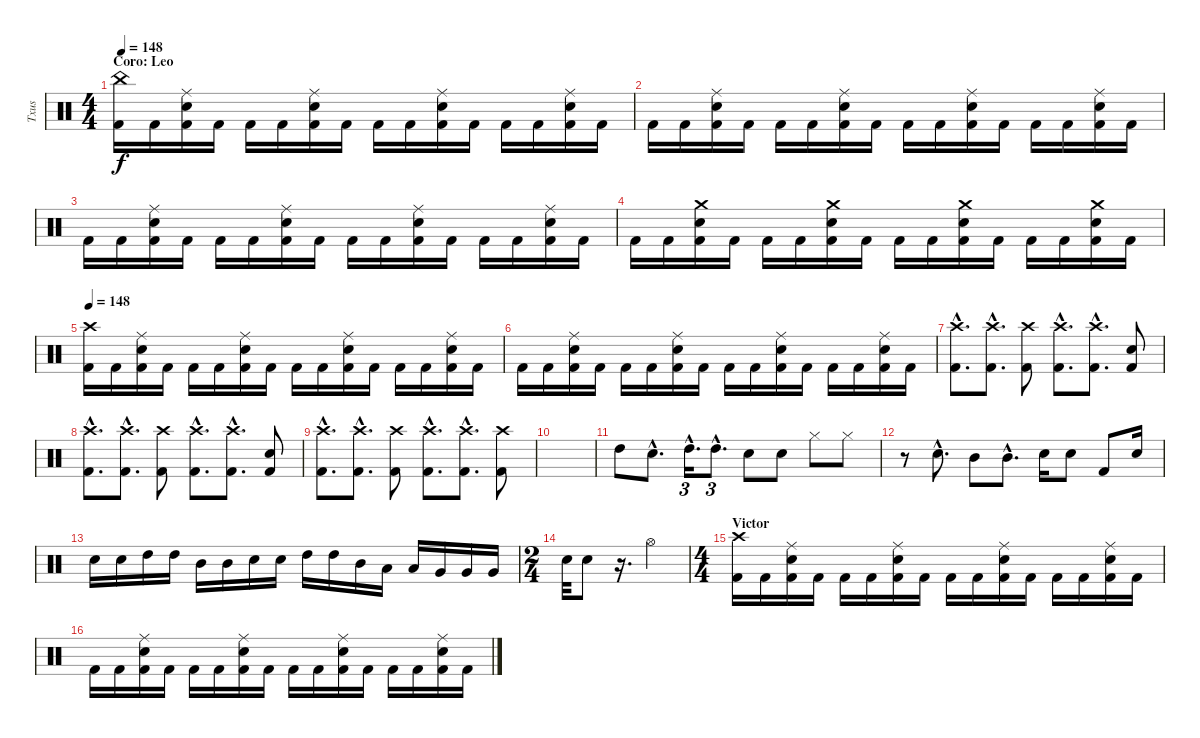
\track ("Txus" "Txus") {instrument percussion}
\staff {score}
\articulation defaults
\ts (4 4)
\section ("" "Coro: Leo")
\tempo 148
\clef neutral
\ks c
("Kick (hit) 2" "China (hit)").16{dy f} "Kick (hit) 2".16 ("Kick (hit) 2" "Electric Snare (hit)" "Ride (middle)").16 "Kick (hit) 2".16 "Kick (hit) 2".16 "Kick (hit) 2".16 ("Kick (hit) 2" "Electric Snare (hit)" "Ride (middle)").16 "Kick (hit) 2".16 "Kick (hit) 2".16 "Kick (hit) 2".16 ("Kick (hit) 2" "Electric Snare (hit)" "Ride (middle)").16 "Kick (hit) 2".16 "Kick (hit) 2".16 "Kick (hit) 2".16 ("Kick (hit) 2" "Electric Snare (hit)" "Ride (middle)").16 "Kick (hit) 2".16 |
"Kick (hit) 2".16 "Kick (hit) 2".16 ("Kick (hit) 2" "Electric Snare (hit)" "Ride (middle)").16 "Kick (hit) 2".16 "Kick (hit) 2".16 "Kick (hit) 2".16 ("Kick (hit) 2" "Electric Snare (hit)" "Ride (middle)").16 "Kick (hit) 2".16 "Kick (hit) 2".16 "Kick (hit) 2".16 ("Kick (hit) 2" "Electric Snare (hit)" "Ride (middle)").16 "Kick (hit) 2".16 "Kick (hit) 2".16 "Kick (hit) 2".16 ("Kick (hit) 2" "Electric Snare (hit)" "Ride (middle)").16 "Kick (hit) 2".16 |
"Kick (hit) 2".16 "Kick (hit) 2".16 ("Kick (hit) 2" "Electric Snare (hit)" "Ride (middle)").16 "Kick (hit) 2".16 "Kick (hit) 2".16 "Kick (hit) 2".16 ("Kick (hit) 2" "Electric Snare (hit)" "Ride (middle)").16 "Kick (hit) 2".16 "Kick (hit) 2".16 "Kick (hit) 2".16 ("Kick (hit) 2" "Electric Snare (hit)" "Ride (middle)").16 "Kick (hit) 2".16 "Kick (hit) 2".16 "Kick (hit) 2".16 ("Kick (hit) 2" "Electric Snare (hit)" "Ride (middle)").16 "Kick (hit) 2".16 |
"Kick (hit) 2".16 "Kick (hit) 2".16 ("Kick (hit) 2" "Electric Snare (hit)" "Crash medium (hit)").16 "Kick (hit) 2".16 "Kick (hit) 2".16 "Kick (hit) 2".16 ("Kick (hit) 2" "Electric Snare (hit)" "Crash medium (hit)").16 "Kick (hit) 2".16 "Kick (hit) 2".16 "Kick (hit) 2".16 ("Kick (hit) 2" "Electric Snare (hit)" "Crash medium (hit)").16 "Kick (hit) 2".16 "Kick (hit) 2".16 "Kick (hit) 2".16 ("Kick (hit) 2" "Electric Snare (hit)" "Crash medium (hit)").16 "Kick (hit) 2".16 |
\tempo 148
("Kick (hit) 2" "Crash high (hit)").16 "Kick (hit) 2".16 ("Kick (hit) 2" "Electric Snare (hit)" "Ride (middle)").16 "Kick (hit) 2".16 "Kick (hit) 2".16 "Kick (hit) 2".16 ("Kick (hit) 2" "Electric Snare (hit)" "Ride (middle)").16 "Kick (hit) 2".16 "Kick (hit) 2".16 "Kick (hit) 2".16 ("Kick (hit) 2" "Electric Snare (hit)" "Ride (middle)").16 "Kick (hit) 2".16 "Kick (hit) 2".16 "Kick (hit) 2".16 ("Kick (hit) 2" "Electric Snare (hit)" "Ride (middle)").16 "Kick (hit) 2".16 |
"Kick (hit) 2".16 "Kick (hit) 2".16 ("Kick (hit) 2" "Electric Snare (hit)" "Ride (middle)").16 "Kick (hit) 2".16 "Kick (hit) 2".16 "Kick (hit) 2".16 ("Kick (hit) 2" "Electric Snare (hit)" "Ride (middle)").16 "Kick (hit) 2".16 "Kick (hit) 2".16 "Kick (hit) 2".16 ("Kick (hit) 2" "Electric Snare (hit)" "Ride (middle)").16 "Kick (hit) 2".16 "Kick (hit) 2".16 "Kick (hit) 2".16 ("Kick (hit) 2" "Electric Snare (hit)" "Ride (middle)").16 "Kick (hit) 2".16 |
("Kick (hit) 2"{hac} "Crash high (hit)"{hac}).8{d} ("Kick (hit) 2"{hac} "Crash high (hit)"{hac}).8{d} ("Kick (hit) 2" "Crash high (hit)").8 ("Kick (hit) 2"{hac} "Crash high (hit)"{hac}).8{d} ("Kick (hit) 2"{hac} "Crash high (hit)"{hac}).8{d} ("Kick (hit) 2" "Electric Snare (hit)").8 |
("Kick (hit) 2"{hac} "Crash high (hit)"{hac}).8{d} ("Kick (hit) 2"{hac} "Crash high (hit)"{hac}).8{d} ("Kick (hit) 2" "Crash high (hit)").8 ("Kick (hit) 2"{hac} "Crash high (hit)"{hac}).8{d} ("Kick (hit) 2"{hac} "Crash high (hit)"{hac}).8{d} ("Kick (hit) 2" "Electric Snare (hit)").8 |
("Kick (hit) 2"{hac} "Crash high (hit)"{hac}).8{d} ("Kick (hit) 2"{hac} "Crash high (hit)"{hac}).8{d} ("Kick (hit) 2" "Crash high (hit)").8 ("Kick (hit) 2"{hac} "Crash high (hit)"{hac}).8{d} ("Kick (hit) 2"{hac} "Crash high (hit)"{hac}).8{d} ("Kick (hit) 2" "Crash high (hit)").8 |
|
"High Tom (hit)".8 "Electric Snare (hit)"{hac}.8{d} "High Tom (hit)"{hac}.16{d tu (3 2)} "High Tom (hit)"{hac}.8{d tu (3 2)} "Electric Snare (hit)".8 "Electric Snare (hit)".8 "Hi-Hat (closed)".8 "Hi-Hat (closed)".8 |
r.8 "Electric Snare (hit)"{hac}.8{d} "Mid Tom (hit)".8 "Mid Tom (hit)"{hac}.8{d} "Electric Snare (hit)".16 "Electric Snare (hit)".8 "Kick (hit) 2".8 "Electric Snare (hit)".16 |
"Electric Snare (hit)".16 "Electric Snare (hit)".16 "High Tom (hit)".16 "High Tom (hit)".16 "Mid Tom (hit)".16 "Mid Tom (hit)".16 "Electric Snare (hit)".16 "Electric Snare (hit)".16 "High Tom (hit)".16 "High Tom (hit)".16 "Mid Tom (hit)".16 "Low Tom (hit)".16 "Low Tom (hit)".16 "Very Low Tom (hit)".16 "Very Low Tom (hit)".16 "Very Low Tom (hit)".16 |
\ts (2 4)
"Electric Snare (hit)".32 "Electric Snare (hit)".8 r.16{d} "Hi-Hat (open)".4 |
\ts (4 4)
\section ("" "Victor")
("Kick (hit) 2" "Crash high (hit)").16 "Kick (hit) 2".16 ("Kick (hit) 2" "Electric Snare (hit)" "Ride (middle)").16 "Kick (hit) 2".16 "Kick (hit) 2".16 "Kick (hit) 2".16 ("Kick (hit) 2" "Electric Snare (hit)" "Ride (middle)").16 "Kick (hit) 2".16 "Kick (hit) 2".16 "Kick (hit) 2".16 ("Kick (hit) 2" "Electric Snare (hit)" "Ride (middle)").16 "Kick (hit) 2".16 "Kick (hit) 2".16 "Kick (hit) 2".16 ("Kick (hit) 2" "Electric Snare (hit)" "Ride (middle)").16 "Kick (hit) 2".16 |
"Kick (hit) 2".16 "Kick (hit) 2".16 ("Kick (hit) 2" "Electric Snare (hit)" "Ride (middle)").16 "Kick (hit) 2".16 "Kick (hit) 2".16 "Kick (hit) 2".16 ("Kick (hit) 2" "Electric Snare (hit)" "Ride (middle)").16 "Kick (hit) 2".16 "Kick (hit) 2".16 "Kick (hit) 2".16 ("Kick (hit) 2" "Electric Snare (hit)" "Ride (middle)").16 "Kick (hit) 2".16 "Kick (hit) 2".16 "Kick (hit) 2".16 ("Kick (hit) 2" "Electric Snare (hit)" "Ride (middle)").16 "Kick (hit) 2".16
